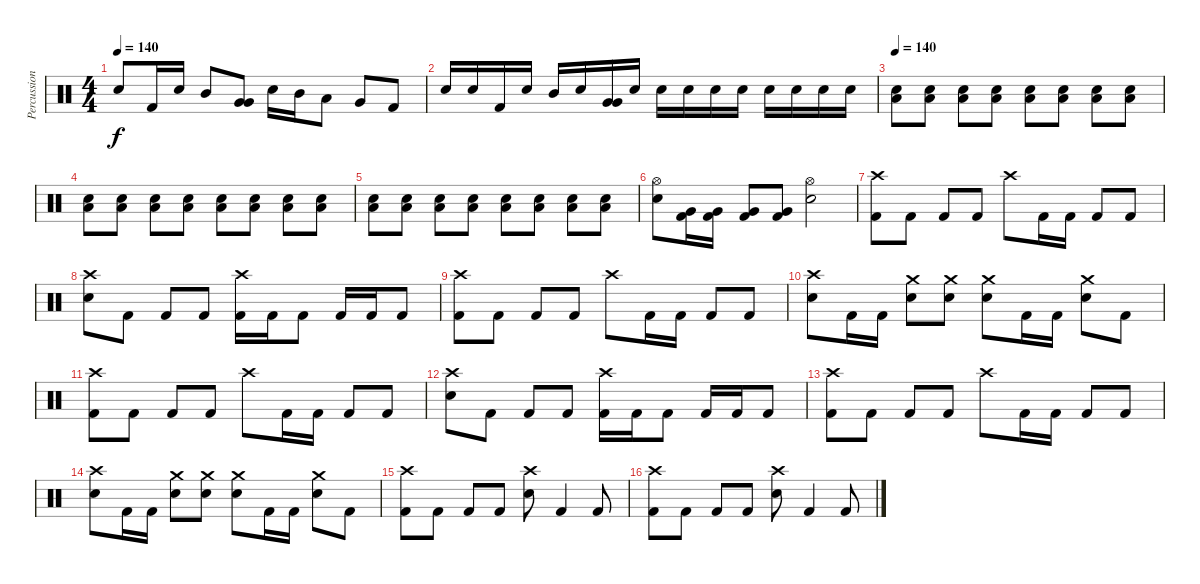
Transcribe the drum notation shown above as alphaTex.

\track ("Percussion" "Percussion") {instrument percussion}
\staff {score}
\articulation defaults
\ts (4 4)
\tempo 140
\clef neutral
\ks c "Electric Snare (hit)".8{dy f} "Kick (hit) 2".16 "Electric Snare (hit)".16 "Mid Tom (hit)".8
("Very Low Tom (hit)" "Very Low Tom (hit)").8 "Electric Snare (hit)".16 "Mid Tom (hit)".16 "Low Tom (hit)".8 "Very Low Tom (hit)".8 "Kick (hit) 2".8 |
"Electric Snare (hit)".16 "Electric Snare (hit)".16 "Kick (hit) 2".16 "Electric Snare (hit)".16 "Mid Tom (hit)".16 "Electric Snare (hit)".16 ("Very Low Tom (hit)" "Very Low Tom (hit)").16 "Electric Snare (hit)".16 "Electric Snare (hit)".16 "Electric Snare (hit)".16 "Electric Snare (hit)".16 "Electric Snare (hit)".16 "Electric Snare (hit)".16 "Electric Snare (hit)".16 "Electric Snare (hit)".16 "Electric Snare (hit)".16 |
\tempo 140
("Low Tom (hit)" "Electric Snare (hit)").8 ("Low Tom (hit)" "Electric Snare (hit)").8 ("Low Tom (hit)" "Electric Snare (hit)").8 ("Low Tom (hit)" "Electric Snare (hit)").8 ("Low Tom (hit)" "Electric Snare (hit)").8 ("Low Tom (hit)" "Electric Snare (hit)").8 ("Low Tom (hit)" "Electric Snare (hit)").8 ("Low Tom (hit)" "Electric Snare (hit)").8 |
("Low Tom (hit)" "Electric Snare (hit)").8 ("Low Tom (hit)" "Electric Snare (hit)").8 ("Low Tom (hit)" "Electric Snare (hit)").8 ("Low Tom (hit)" "Electric Snare (hit)").8 ("Low Tom (hit)" "Electric Snare (hit)").8 ("Low Tom (hit)" "Electric Snare (hit)").8 ("Low Tom (hit)" "Electric Snare (hit)").8 ("Low Tom (hit)" "Electric Snare (hit)").8 |
("Low Tom (hit)" "Electric Snare (hit)").8 ("Low Tom (hit)" "Electric Snare (hit)").8 ("Low Tom (hit)" "Electric Snare (hit)").8 ("Low Tom (hit)" "Electric Snare (hit)").8 ("Low Tom (hit)" "Electric Snare (hit)").8 ("Low Tom (hit)" "Electric Snare (hit)").8 ("Low Tom (hit)" "Electric Snare (hit)").8 ("Low Tom (hit)" "Electric Snare (hit)").8 |
("Hi-Hat (open)" "Electric Snare (hit)").8 ("Very Low Tom (hit)" "Kick (hit) 2").16 ("Very Low Tom (hit)" "Kick (hit) 2").16 ("Very Low Tom (hit)" "Kick (hit) 2").8 ("Very Low Tom (hit)" "Kick (hit) 2").8 ("Hi-Hat (open)" "Electric Snare (hit)").2 |
("Crash high (hit)" "Kick (hit) 2").8 "Kick (hit) 2".8 "Kick (hit) 2".8 "Kick (hit) 2".8 "Crash high (hit)".8 "Kick (hit) 2".16 "Kick (hit) 2".16 "Kick (hit) 2".8 "Kick (hit) 2".8 |
("Crash high (hit)" "Electric Snare (hit)").8 "Kick (hit) 2".8 "Kick (hit) 2".8 "Kick (hit) 2".8 ("Crash high (hit)" "Kick (hit) 2").16 "Kick (hit) 2".16 "Kick (hit) 2".8 "Kick (hit) 2".16 "Kick (hit) 2".16 "Kick (hit) 2".8 |
("Crash high (hit)" "Kick (hit) 2").8 "Kick (hit) 2".8 "Kick (hit) 2".8 "Kick (hit) 2".8 "Crash high (hit)".8 "Kick (hit) 2".16 "Kick (hit) 2".16 "Kick (hit) 2".8 "Kick (hit) 2".8 |
("Crash high (hit)" "Electric Snare (hit)").8 "Kick (hit) 2".16 "Kick (hit) 2".16 ("Crash medium (hit)" "Electric Snare (hit)").8 ("Crash medium (hit)" "Electric Snare (hit)").8 ("Crash medium (hit)" "Electric Snare (hit)").8 "Kick (hit) 2".16 "Kick (hit) 2".16 ("Crash medium (hit)" "Electric Snare (hit)").8 "Kick (hit) 2".8 |
("Crash high (hit)" "Kick (hit) 2").8 "Kick (hit) 2".8 "Kick (hit) 2".8 "Kick (hit) 2".8 "Crash high (hit)".8 "Kick (hit) 2".16 "Kick (hit) 2".16 "Kick (hit) 2".8 "Kick (hit) 2".8 |
("Crash high (hit)" "Electric Snare (hit)").8 "Kick (hit) 2".8 "Kick (hit) 2".8 "Kick (hit) 2".8 ("Crash high (hit)" "Kick (hit) 2").16 "Kick (hit) 2".16 "Kick (hit) 2".8 "Kick (hit) 2".16 "Kick (hit) 2".16 "Kick (hit) 2".8 |
("Crash high (hit)" "Kick (hit) 2").8 "Kick (hit) 2".8 "Kick (hit) 2".8 "Kick (hit) 2".8 "Crash high (hit)".8 "Kick (hit) 2".16 "Kick (hit) 2".16 "Kick (hit) 2".8 "Kick (hit) 2".8 |
("Crash high (hit)" "Electric Snare (hit)").8 "Kick (hit) 2".16 "Kick (hit) 2".16 ("Crash medium (hit)" "Electric Snare (hit)").8 ("Crash medium (hit)" "Electric Snare (hit)").8 ("Crash medium (hit)" "Electric Snare (hit)").8 "Kick (hit) 2".16 "Kick (hit) 2".16 ("Crash medium (hit)" "Electric Snare (hit)").8 "Kick (hit) 2".8 |
("Crash high (hit)" "Kick (hit) 2").8 "Kick (hit) 2".8 "Kick (hit) 2".8 "Kick (hit) 2".8 ("Crash high (hit)" "Electric Snare (hit)").8 "Kick (hit) 2".4 "Kick (hit) 2".8 |
("Crash high (hit)" "Kick (hit) 2").8 "Kick (hit) 2".8 "Kick (hit) 2".8 "Kick (hit) 2".8 ("Crash high (hit)" "Electric Snare (hit)").8 "Kick (hit) 2".4 "Kick (hit) 2".8
